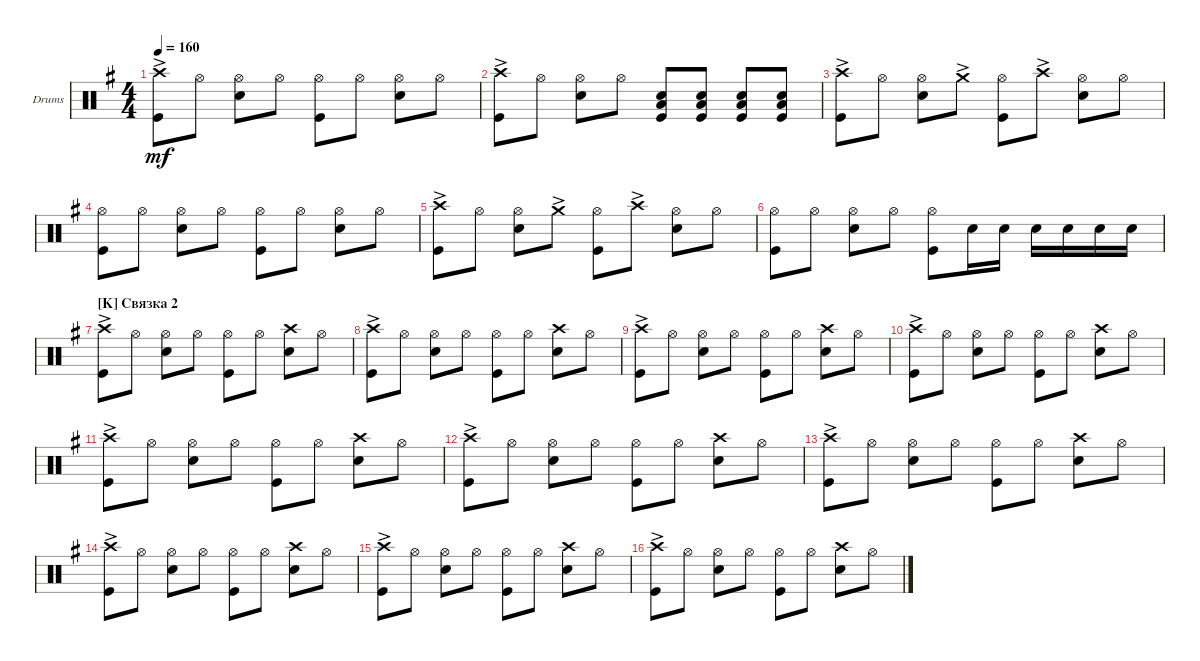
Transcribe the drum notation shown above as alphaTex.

\defaultSystemsLayout 4
\bracketExtendMode groupsimilarinstruments
\firstSystemTrackNameOrientation horizontal
\otherSystemsTrackNameOrientation horizontal
\track ("Drumkit" "Drums") {instrument percussion}
\staff {score}
\articulation defaults
\ts (4 4)
\tempo 160
\clef neutral
\ks eminor
("Kick (hit)" "Crash high (hit)"{ac}).8{dy mf} "Hi-Hat (open)".8 ("Hi-Hat (open)" "Snare (hit) 2").8 "Hi-Hat (open)".8 ("Hi-Hat (open)" "Kick (hit)").8 "Hi-Hat (open)".8 ("Hi-Hat (open)" "Snare (hit) 2").8 "Hi-Hat (open)".8 |
("Kick (hit)" "Crash high (hit)"{ac}).8 "Hi-Hat (open)".8 ("Hi-Hat (open)" "Snare (hit) 2").8 "Hi-Hat (open)".8 ("Snare (hit) 2" "Low Tom (hit)" "Kick (hit)").8 ("Snare (hit) 2" "Low Tom (hit)" "Kick (hit)").8 ("Snare (hit) 2" "Low Tom (hit)" "Kick (hit)").8 ("Snare (hit) 2" "Low Tom (hit)" "Kick (hit)").8 |
("Kick (hit)" "Crash high (hit)"{ac}).8 "Hi-Hat (open)".8 ("Hi-Hat (open)" "Snare (hit) 2").8 "Crash medium (hit)"{ac}.8 ("Hi-Hat (open)" "Kick (hit)").8 "Crash high (hit)"{ac}.8 ("Snare (hit) 2" "Hi-Hat (open)").8 "Hi-Hat (open)".8 |
("Kick (hit)" "Hi-Hat (open)").8 "Hi-Hat (open)".8 ("Hi-Hat (open)" "Snare (hit) 2").8 "Hi-Hat (open)".8 ("Hi-Hat (open)" "Kick (hit)").8 "Hi-Hat (open)".8 ("Hi-Hat (open)" "Snare (hit) 2").8 "Hi-Hat (open)".8 |
("Kick (hit)" "Crash high (hit)"{ac}).8 "Hi-Hat (open)".8 ("Hi-Hat (open)" "Snare (hit) 2").8 "Crash medium (hit)"{ac}.8 ("Hi-Hat (open)" "Kick (hit)").8 "Crash high (hit)"{ac}.8 ("Snare (hit) 2" "Hi-Hat (open)").8 "Hi-Hat (open)".8 |
("Kick (hit)" "Hi-Hat (open)").8 "Hi-Hat (open)".8 ("Hi-Hat (open)" "Snare (hit) 2").8 "Hi-Hat (open)".8 ("Hi-Hat (open)" "Kick (hit)").8 "Snare (hit) 2".16 "Snare (hit) 2".16 "Snare (hit) 2".16 "Snare (hit) 2".16 "Snare (hit) 2".16 "Snare (hit) 2".16 |
\section ("K" "Связка 2")
("Kick (hit)" "Crash high (hit)"{ac}).8 "Hi-Hat (open)".8 ("Hi-Hat (open)" "Snare (hit) 2").8 "Hi-Hat (open)".8 ("Hi-Hat (open)" "Kick (hit)").8 "Hi-Hat (open)".8 ("Snare (hit) 2" "Crash high (hit)").8 "Hi-Hat (open)".8 |
("Kick (hit)" "Crash high (hit)"{ac}).8 "Hi-Hat (open)".8 ("Hi-Hat (open)" "Snare (hit) 2").8 "Hi-Hat (open)".8 ("Hi-Hat (open)" "Kick (hit)").8 "Hi-Hat (open)".8 ("Snare (hit) 2" "Crash high (hit)").8 "Hi-Hat (open)".8 |
("Kick (hit)" "Crash high (hit)"{ac}).8 "Hi-Hat (open)".8 ("Hi-Hat (open)" "Snare (hit) 2").8 "Hi-Hat (open)".8 ("Hi-Hat (open)" "Kick (hit)").8 "Hi-Hat (open)".8 ("Snare (hit) 2" "Crash high (hit)").8 "Hi-Hat (open)".8 |
("Kick (hit)" "Crash high (hit)"{ac}).8 "Hi-Hat (open)".8 ("Hi-Hat (open)" "Snare (hit) 2").8 "Hi-Hat (open)".8 ("Hi-Hat (open)" "Kick (hit)").8 "Hi-Hat (open)".8 ("Snare (hit) 2" "Crash high (hit)").8 "Hi-Hat (open)".8 |
("Kick (hit)" "Crash high (hit)"{ac}).8 "Hi-Hat (open)".8 ("Hi-Hat (open)" "Snare (hit) 2").8 "Hi-Hat (open)".8 ("Hi-Hat (open)" "Kick (hit)").8 "Hi-Hat (open)".8 ("Snare (hit) 2" "Crash high (hit)").8 "Hi-Hat (open)".8 |
("Kick (hit)" "Crash high (hit)"{ac}).8 "Hi-Hat (open)".8 ("Hi-Hat (open)" "Snare (hit) 2").8 "Hi-Hat (open)".8 ("Hi-Hat (open)" "Kick (hit)").8 "Hi-Hat (open)".8 ("Snare (hit) 2" "Crash high (hit)").8 "Hi-Hat (open)".8 |
("Kick (hit)" "Crash high (hit)"{ac}).8 "Hi-Hat (open)".8 ("Hi-Hat (open)" "Snare (hit) 2").8 "Hi-Hat (open)".8 ("Hi-Hat (open)" "Kick (hit)").8 "Hi-Hat (open)".8 ("Snare (hit) 2" "Crash high (hit)").8 "Hi-Hat (open)".8 |
("Kick (hit)" "Crash high (hit)"{ac}).8 "Hi-Hat (open)".8 ("Hi-Hat (open)" "Snare (hit) 2").8 "Hi-Hat (open)".8 ("Hi-Hat (open)" "Kick (hit)").8 "Hi-Hat (open)".8 ("Snare (hit) 2" "Crash high (hit)").8 "Hi-Hat (open)".8 |
("Kick (hit)" "Crash high (hit)"{ac}).8 "Hi-Hat (open)".8 ("Hi-Hat (open)" "Snare (hit) 2").8 "Hi-Hat (open)".8 ("Hi-Hat (open)" "Kick (hit)").8 "Hi-Hat (open)".8 ("Snare (hit) 2" "Crash high (hit)").8 "Hi-Hat (open)".8 |
("Kick (hit)" "Crash high (hit)"{ac}).8 "Hi-Hat (open)".8 ("Hi-Hat (open)" "Snare (hit) 2").8 "Hi-Hat (open)".8 ("Hi-Hat (open)" "Kick (hit)").8 "Hi-Hat (open)".8 ("Snare (hit) 2" "Crash high (hit)").8 "Hi-Hat (open)".8
